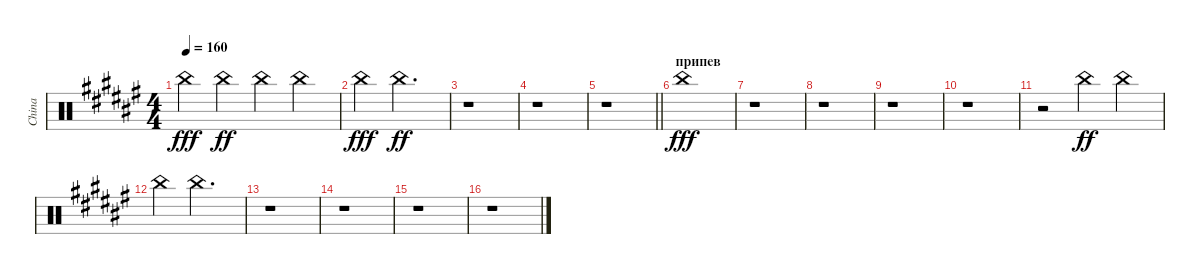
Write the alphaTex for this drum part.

\track ("China" "China") {instrument percussion}
\staff {score}
\articulation defaults
\ts (4 4)
\tempo 160
\clef neutral
\ks d#minor "China (hit)".4{dy fff} "China (hit)".4{dy ff} "China (hit)".4 "China (hit)".4
|
"China (hit)".4{dy fff} "China (hit)".2{d dy ff} |
r.1 |
r.1 |
\barLineRight lightlight
r.1 |
\section ("" "припев")
"China (hit)".1{dy fff} |
r.1 |
r.1 |
r.1 |
r.1 |
r.2 "China (hit)".4{dy ff} "China (hit)".4 |
"China (hit)".4 "China (hit)".2{d} |
r.1 |
r.1 |
r.1 |
r.1
